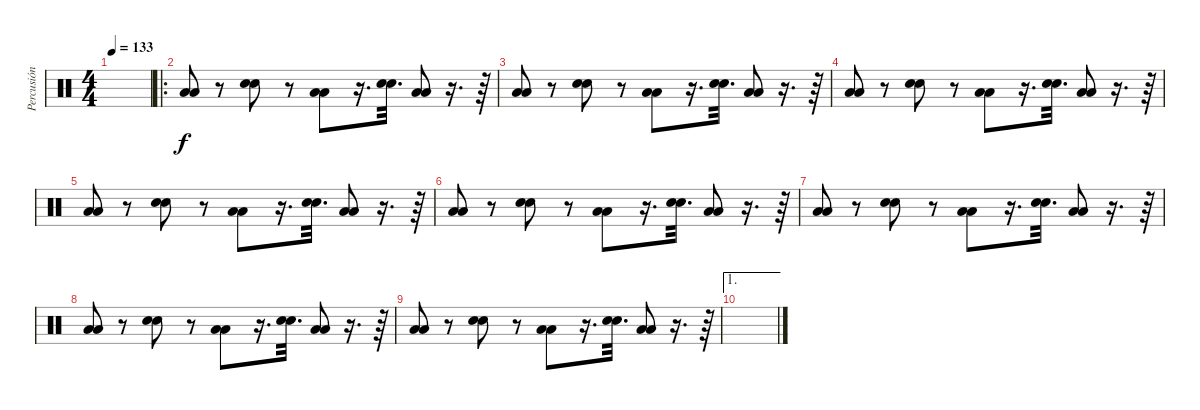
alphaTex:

\track ("Percusión" "Percusión") {instrument percussion}
\staff {score}
\articulation defaults
\ts (4 4)
\tempo 133
\clef neutral
\ks c
|
\ro
("Low Tom (hit)" "Low Tom (hit)").8 r.8 ("Snare (hit) 2" "Snare (hit) 2").8 r.8 ("Low Tom (hit)" "Low Tom (hit)").8 r.16{d} ("Snare (hit) 2" "Snare (hit) 2").32{d} ("Low Tom (hit)" "Low Tom (hit)").8 r.16{d} r.64 |
("Low Tom (hit)" "Low Tom (hit)").8 r.8 ("Snare (hit) 2" "Snare (hit) 2").8 r.8 ("Low Tom (hit)" "Low Tom (hit)").8 r.16{d} ("Snare (hit) 2" "Snare (hit) 2").32{d} ("Low Tom (hit)" "Low Tom (hit)").8 r.16{d} r.64 |
("Low Tom (hit)" "Low Tom (hit)").8 r.8 ("Snare (hit) 2" "Snare (hit) 2").8 r.8 ("Low Tom (hit)" "Low Tom (hit)").8 r.16{d} ("Snare (hit) 2" "Snare (hit) 2").32{d} ("Low Tom (hit)" "Low Tom (hit)").8 r.16{d} r.64 |
("Low Tom (hit)" "Low Tom (hit)").8 r.8 ("Snare (hit) 2" "Snare (hit) 2").8 r.8 ("Low Tom (hit)" "Low Tom (hit)").8 r.16{d} ("Snare (hit) 2" "Snare (hit) 2").32{d} ("Low Tom (hit)" "Low Tom (hit)").8 r.16{d} r.64 |
("Low Tom (hit)" "Low Tom (hit)").8 r.8 ("Snare (hit) 2" "Snare (hit) 2").8 r.8 ("Low Tom (hit)" "Low Tom (hit)").8 r.16{d} ("Snare (hit) 2" "Snare (hit) 2").32{d} ("Low Tom (hit)" "Low Tom (hit)").8 r.16{d} r.64 |
("Low Tom (hit)" "Low Tom (hit)").8 r.8 ("Snare (hit) 2" "Snare (hit) 2").8 r.8 ("Low Tom (hit)" "Low Tom (hit)").8 r.16{d} ("Snare (hit) 2" "Snare (hit) 2").32{d} ("Low Tom (hit)" "Low Tom (hit)").8 r.16{d} r.64 |
("Low Tom (hit)" "Low Tom (hit)").8 r.8 ("Snare (hit) 2" "Snare (hit) 2").8 r.8 ("Low Tom (hit)" "Low Tom (hit)").8 r.16{d} ("Snare (hit) 2" "Snare (hit) 2").32{d} ("Low Tom (hit)" "Low Tom (hit)").8 r.16{d} r.64 |
("Low Tom (hit)" "Low Tom (hit)").8 r.8 ("Snare (hit) 2" "Snare (hit) 2").8 r.8 ("Low Tom (hit)" "Low Tom (hit)").8 r.16{d} ("Snare (hit) 2" "Snare (hit) 2").32{d} ("Low Tom (hit)" "Low Tom (hit)").8 r.16{d} r.64 |
\ae 1
